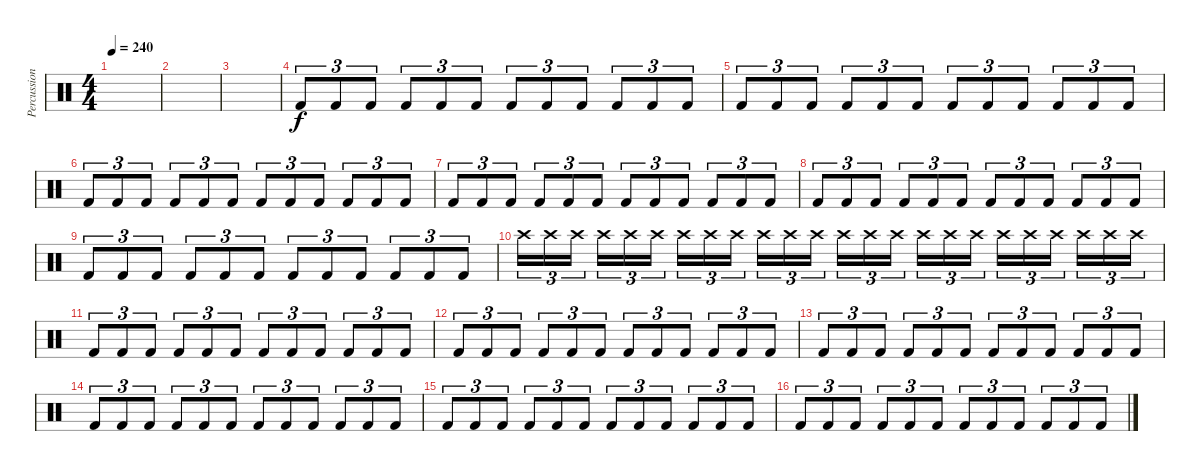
\track ("Percussion" "Percussion") {instrument percussion}
\staff {score}
\articulation defaults
\ts (4 4)
\tempo 240
\clef neutral
\ks c
|
|
|
"Kick (hit) 2".8{tu (3 2)} "Kick (hit) 2".8{tu (3 2)} "Kick (hit) 2".8{tu (3 2)} "Kick (hit) 2".8{tu (3 2)} "Kick (hit) 2".8{tu (3 2)} "Kick (hit) 2".8{tu (3 2)} "Kick (hit) 2".8{tu (3 2)} "Kick (hit) 2".8{tu (3 2)} "Kick (hit) 2".8{tu (3 2)} "Kick (hit) 2".8{tu (3 2)} "Kick (hit) 2".8{tu (3 2)} "Kick (hit) 2".8{tu (3 2)} |
"Kick (hit) 2".8{tu (3 2)} "Kick (hit) 2".8{tu (3 2)} "Kick (hit) 2".8{tu (3 2)} "Kick (hit) 2".8{tu (3 2)} "Kick (hit) 2".8{tu (3 2)} "Kick (hit) 2".8{tu (3 2)} "Kick (hit) 2".8{tu (3 2)} "Kick (hit) 2".8{tu (3 2)} "Kick (hit) 2".8{tu (3 2)} "Kick (hit) 2".8{tu (3 2)} "Kick (hit) 2".8{tu (3 2)} "Kick (hit) 2".8{tu (3 2)} |
"Kick (hit) 2".8{tu (3 2)} "Kick (hit) 2".8{tu (3 2)} "Kick (hit) 2".8{tu (3 2)} "Kick (hit) 2".8{tu (3 2)} "Kick (hit) 2".8{tu (3 2)} "Kick (hit) 2".8{tu (3 2)} "Kick (hit) 2".8{tu (3 2)} "Kick (hit) 2".8{tu (3 2)} "Kick (hit) 2".8{tu (3 2)} "Kick (hit) 2".8{tu (3 2)} "Kick (hit) 2".8{tu (3 2)} "Kick (hit) 2".8{tu (3 2)} |
"Kick (hit) 2".8{tu (3 2)} "Kick (hit) 2".8{tu (3 2)} "Kick (hit) 2".8{tu (3 2)} "Kick (hit) 2".8{tu (3 2)} "Kick (hit) 2".8{tu (3 2)} "Kick (hit) 2".8{tu (3 2)} "Kick (hit) 2".8{tu (3 2)} "Kick (hit) 2".8{tu (3 2)} "Kick (hit) 2".8{tu (3 2)} "Kick (hit) 2".8{tu (3 2)} "Kick (hit) 2".8{tu (3 2)} "Kick (hit) 2".8{tu (3 2)} |
"Kick (hit) 2".8{tu (3 2)} "Kick (hit) 2".8{tu (3 2)} "Kick (hit) 2".8{tu (3 2)} "Kick (hit) 2".8{tu (3 2)} "Kick (hit) 2".8{tu (3 2)} "Kick (hit) 2".8{tu (3 2)} "Kick (hit) 2".8{tu (3 2)} "Kick (hit) 2".8{tu (3 2)} "Kick (hit) 2".8{tu (3 2)} "Kick (hit) 2".8{tu (3 2)} "Kick (hit) 2".8{tu (3 2)} "Kick (hit) 2".8{tu (3 2)} |
"Kick (hit) 2".8{tu (3 2)} "Kick (hit) 2".8{tu (3 2)} "Kick (hit) 2".8{tu (3 2)} "Kick (hit) 2".8{tu (3 2)} "Kick (hit) 2".8{tu (3 2)} "Kick (hit) 2".8{tu (3 2)} "Kick (hit) 2".8{tu (3 2)} "Kick (hit) 2".8{tu (3 2)} "Kick (hit) 2".8{tu (3 2)} "Kick (hit) 2".8{tu (3 2)} "Kick (hit) 2".8{tu (3 2)} "Kick (hit) 2".8{tu (3 2)} |
"Crash high (hit)".16{tu (3 2)} "Crash high (hit)".16{tu (3 2)} "Crash high (hit)".16{tu (3 2) beam splitsecondary} "Crash high (hit)".16{tu (3 2)} "Crash high (hit)".16{tu (3 2)} "Crash high (hit)".16{tu (3 2)} "Crash high (hit)".16{tu (3 2)} "Crash high (hit)".16{tu (3 2)} "Crash high (hit)".16{tu (3 2) beam splitsecondary} "Crash high (hit)".16{tu (3 2)} "Crash high (hit)".16{tu (3 2)} "Crash high (hit)".16{tu (3 2)} "Crash high (hit)".16{tu (3 2)} "Crash high (hit)".16{tu (3 2)} "Crash high (hit)".16{tu (3 2) beam splitsecondary} "Crash high (hit)".16{tu (3 2)} "Crash high (hit)".16{tu (3 2)} "Crash high (hit)".16{tu (3 2)} "Crash high (hit)".16{tu (3 2)} "Crash high (hit)".16{tu (3 2)} "Crash high (hit)".16{tu (3 2) beam splitsecondary} "Crash high (hit)".16{tu (3 2)} "Crash high (hit)".16{tu (3 2)} "Crash high (hit)".16{tu (3 2)} |
"Kick (hit) 2".8{tu (3 2)} "Kick (hit) 2".8{tu (3 2)} "Kick (hit) 2".8{tu (3 2)} "Kick (hit) 2".8{tu (3 2)} "Kick (hit) 2".8{tu (3 2)} "Kick (hit) 2".8{tu (3 2)} "Kick (hit) 2".8{tu (3 2)} "Kick (hit) 2".8{tu (3 2)} "Kick (hit) 2".8{tu (3 2)} "Kick (hit) 2".8{tu (3 2)} "Kick (hit) 2".8{tu (3 2)} "Kick (hit) 2".8{tu (3 2)} |
"Kick (hit) 2".8{tu (3 2)} "Kick (hit) 2".8{tu (3 2)} "Kick (hit) 2".8{tu (3 2)} "Kick (hit) 2".8{tu (3 2)} "Kick (hit) 2".8{tu (3 2)} "Kick (hit) 2".8{tu (3 2)} "Kick (hit) 2".8{tu (3 2)} "Kick (hit) 2".8{tu (3 2)} "Kick (hit) 2".8{tu (3 2)} "Kick (hit) 2".8{tu (3 2)} "Kick (hit) 2".8{tu (3 2)} "Kick (hit) 2".8{tu (3 2)} |
"Kick (hit) 2".8{tu (3 2)} "Kick (hit) 2".8{tu (3 2)} "Kick (hit) 2".8{tu (3 2)} "Kick (hit) 2".8{tu (3 2)} "Kick (hit) 2".8{tu (3 2)} "Kick (hit) 2".8{tu (3 2)} "Kick (hit) 2".8{tu (3 2)} "Kick (hit) 2".8{tu (3 2)} "Kick (hit) 2".8{tu (3 2)} "Kick (hit) 2".8{tu (3 2)} "Kick (hit) 2".8{tu (3 2)} "Kick (hit) 2".8{tu (3 2)} |
"Kick (hit) 2".8{tu (3 2)} "Kick (hit) 2".8{tu (3 2)} "Kick (hit) 2".8{tu (3 2)} "Kick (hit) 2".8{tu (3 2)} "Kick (hit) 2".8{tu (3 2)} "Kick (hit) 2".8{tu (3 2)} "Kick (hit) 2".8{tu (3 2)} "Kick (hit) 2".8{tu (3 2)} "Kick (hit) 2".8{tu (3 2)} "Kick (hit) 2".8{tu (3 2)} "Kick (hit) 2".8{tu (3 2)} "Kick (hit) 2".8{tu (3 2)} |
"Kick (hit) 2".8{tu (3 2)} "Kick (hit) 2".8{tu (3 2)} "Kick (hit) 2".8{tu (3 2)} "Kick (hit) 2".8{tu (3 2)} "Kick (hit) 2".8{tu (3 2)} "Kick (hit) 2".8{tu (3 2)} "Kick (hit) 2".8{tu (3 2)} "Kick (hit) 2".8{tu (3 2)} "Kick (hit) 2".8{tu (3 2)} "Kick (hit) 2".8{tu (3 2)} "Kick (hit) 2".8{tu (3 2)} "Kick (hit) 2".8{tu (3 2)} |
"Kick (hit) 2".8{tu (3 2)} "Kick (hit) 2".8{tu (3 2)} "Kick (hit) 2".8{tu (3 2)} "Kick (hit) 2".8{tu (3 2)} "Kick (hit) 2".8{tu (3 2)} "Kick (hit) 2".8{tu (3 2)} "Kick (hit) 2".8{tu (3 2)} "Kick (hit) 2".8{tu (3 2)} "Kick (hit) 2".8{tu (3 2)} "Kick (hit) 2".8{tu (3 2)} "Kick (hit) 2".8{tu (3 2)} "Kick (hit) 2".8{tu (3 2)}
